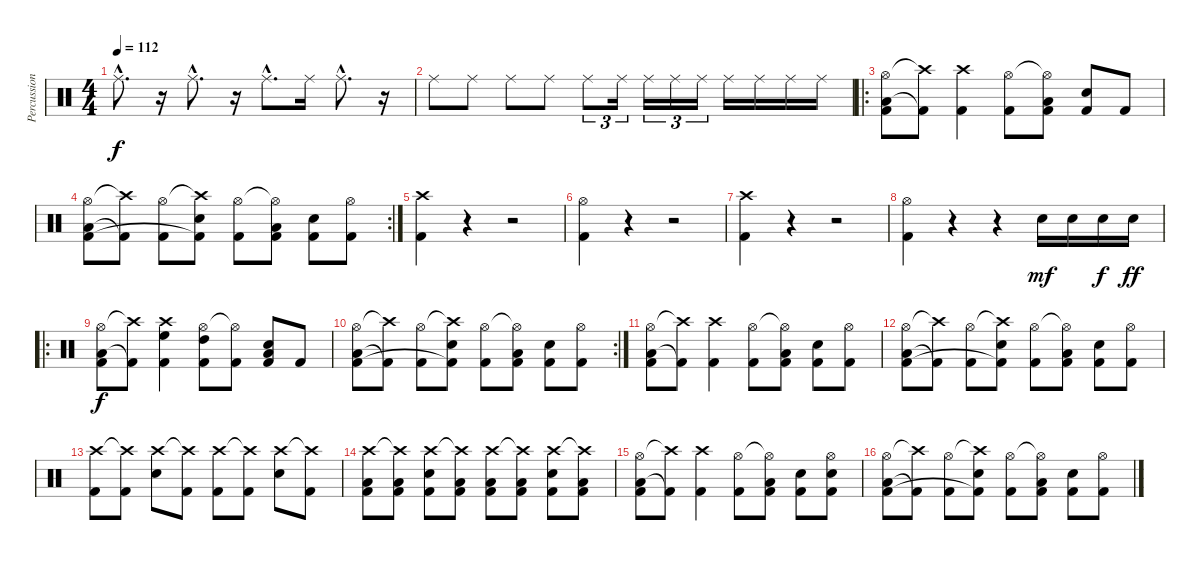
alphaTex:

\track ("Percussion" "Percussion") {instrument percussion}
\staff {score}
\articulation defaults
\ts (4 4)
\tempo 112
\clef neutral
\ks c "Ride (middle)"{hac}.8{d dy f}
r.16 "Ride (middle)"{hac}.8{d} r.16 "Ride (middle)"{hac}.8{d} "Ride (middle)".16 "Ride (middle)"{hac}.8{d} r.16 |
"Ride (middle)".8 "Ride (middle)".8 "Ride (middle)".8 "Ride (middle)".8 "Ride (middle)".8{tu (3 2)} "Ride (middle)".16{tu (3 2)} "Ride (middle)".16{tu (3 2)} "Ride (middle)".16{tu (3 2)} "Ride (middle)".16{tu (3 2)} "Ride (middle)".16 "Ride (middle)".16 "Ride (middle)".16 "Ride (middle)".16 |
\ro
("Hi-Hat (open)" "Low Tom (hit)" "Kick (hit) 2").8 ("Crash high (hit)"{t} "Kick (hit) 2"{t}).8 ("Crash high (hit)" "Kick (hit) 2").4 ("Hi-Hat (open)" "Kick (hit) 2").8 ("Hi-Hat (open)"{t} "Low Tom (hit)" "Kick (hit) 2").8 ("Snare (hit) 2" "Kick (hit) 2").8 "Kick (hit) 2".8 |
\rc 2
("Hi-Hat (open)" "Low Tom (hit)" "Kick (hit) 2").8 ("Crash high (hit)"{t} "Kick (hit) 2"{t}).8 ("Hi-Hat (open)" "Kick (hit) 2").8 ("Crash high (hit)"{t} "Snare (hit) 2" "Kick (hit) 2"{t}).8 ("Hi-Hat (open)" "Kick (hit) 2").8 ("Hi-Hat (open)"{t} "Low Tom (hit)" "Kick (hit) 2").8 ("Snare (hit) 2" "Kick (hit) 2").8 ("Hi-Hat (open)" "Kick (hit) 2").8 |
("Crash high (hit)" "Kick (hit) 2").4 r.4 r.2 |
("Hi-Hat (open)" "Kick (hit) 2").4 r.4 r.2 |
("Crash high (hit)" "Kick (hit) 2").4 r.4 r.2 |
("Hi-Hat (open)" "Kick (hit) 2").4 r.4 r.4 "Snare (hit) 2".16{dy mf} "Snare (hit) 2".16 "Snare (hit) 2".16{dy f} "Snare (hit) 2".16{dy ff} |
\ro
("Hi-Hat (open)" "Low Tom (hit)" "Kick (hit) 2").8{dy f} ("Crash high (hit)"{t} "Kick (hit) 2"{t}).8 ("Crash high (hit)" "High Floor Tom (hit)" "Kick (hit) 2").4 ("Hi-Hat (open)" "High Tom (hit)" "Kick (hit) 2").8 ("Hi-Hat (open)"{t} "Kick (hit) 2").8 ("Snare (hit) 2" "Low Tom (hit)" "Kick (hit) 2").8 "Kick (hit) 2".8 |
\rc 2
("Hi-Hat (open)" "Low Tom (hit)" "Kick (hit) 2").8 ("Crash high (hit)"{t} "Kick (hit) 2"{t}).8 ("Hi-Hat (open)" "Kick (hit) 2").8 ("Crash high (hit)"{t} "Snare (hit) 2" "Kick (hit) 2"{t}).8 ("Hi-Hat (open)" "Kick (hit) 2").8 ("Hi-Hat (open)"{t} "Low Tom (hit)" "Kick (hit) 2").8 ("Snare (hit) 2" "Kick (hit) 2").8 ("Hi-Hat (open)" "Kick (hit) 2").8 |
("Hi-Hat (open)" "Low Tom (hit)" "Kick (hit) 2").8 ("Crash high (hit)"{t} "Kick (hit) 2"{t}).8 ("Crash high (hit)" "Kick (hit) 2").4 ("Hi-Hat (open)" "Kick (hit) 2").8 ("Hi-Hat (open)"{t} "Low Tom (hit)" "Kick (hit) 2").8 ("Snare (hit) 2" "Kick (hit) 2").8 ("Hi-Hat (open)" "Kick (hit) 2").8 |
("Hi-Hat (open)" "Low Tom (hit)" "Kick (hit) 2").8 ("Crash high (hit)"{t} "Kick (hit) 2"{t}).8 ("Hi-Hat (open)" "Kick (hit) 2").8 ("Crash high (hit)"{t} "Snare (hit) 2" "Kick (hit) 2"{t}).8 ("Hi-Hat (open)" "Kick (hit) 2").8 ("Hi-Hat (open)"{t} "Low Tom (hit)" "Kick (hit) 2").8 ("Snare (hit) 2" "Kick (hit) 2").8 ("Hi-Hat (open)" "Kick (hit) 2").8 |
("Crash high (hit)" "Kick (hit) 2").8 ("Crash high (hit)"{t} "Kick (hit) 2").8 ("Crash high (hit)" "Snare (hit) 2").8 ("Crash high (hit)"{t} "Kick (hit) 2").8 ("Crash high (hit)" "Kick (hit) 2").8 ("Crash high (hit)"{t} "Kick (hit) 2").8 ("Crash high (hit)" "Snare (hit) 2").8 ("Crash high (hit)"{t} "Kick (hit) 2").8 |
("Crash high (hit)" "Low Tom (hit)" "Kick (hit) 2").8 ("Crash high (hit)"{t} "Low Tom (hit)" "Kick (hit) 2").8 ("Crash high (hit)" "Snare (hit) 2" "Kick (hit) 2").8 ("Crash high (hit)"{t} "Low Tom (hit)" "Kick (hit) 2").8 ("Crash high (hit)" "Low Tom (hit)" "Kick (hit) 2").8 ("Crash high (hit)"{t} "Low Tom (hit)" "Kick (hit) 2").8 ("Crash high (hit)" "Snare (hit) 2" "Kick (hit) 2").8 ("Crash high (hit)"{t} "Low Tom (hit)" "Kick (hit) 2").8 |
("Hi-Hat (open)" "Low Tom (hit)" "Kick (hit) 2").8 ("Crash high (hit)"{t} "Kick (hit) 2"{t}).8 ("Crash high (hit)" "Kick (hit) 2").4 ("Hi-Hat (open)" "Kick (hit) 2").8 ("Hi-Hat (open)"{t} "Low Tom (hit)" "Kick (hit) 2").8 ("Snare (hit) 2" "Kick (hit) 2").8 ("Hi-Hat (open)" "Snare (hit) 2" "Kick (hit) 2").8 |
("Hi-Hat (open)" "Low Tom (hit)" "Kick (hit) 2").8 ("Crash high (hit)"{t} "Kick (hit) 2"{t}).8 ("Hi-Hat (open)" "Kick (hit) 2").8 ("Crash high (hit)"{t} "Snare (hit) 2" "Kick (hit) 2"{t}).8 ("Hi-Hat (open)" "Kick (hit) 2").8 ("Hi-Hat (open)"{t} "Low Tom (hit)" "Kick (hit) 2").8 ("Snare (hit) 2" "Kick (hit) 2").8 ("Hi-Hat (open)" "Kick (hit) 2").8
